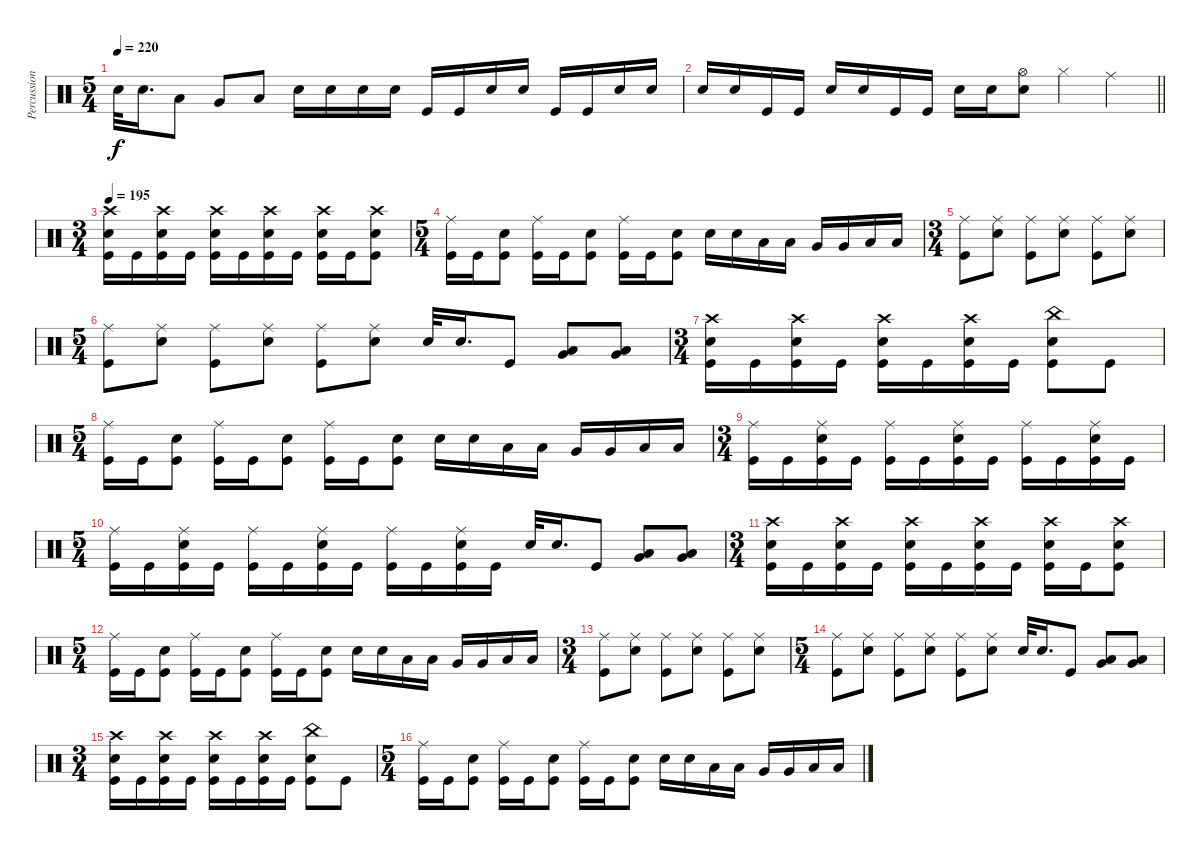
\track ("Percussion" "Percussion") {instrument percussion}
\staff {score}
\articulation defaults
\ts (5 4)
\tempo 220
\clef neutral
\ks c "Electric Snare (hit)".32{dy f} "Electric Snare (hit)".16{d} "Low Tom (hit)".8 "Very Low Tom (hit)".8 "Low Floor Tom (hit)".8 "Electric Snare (hit)".16 "Electric Snare (hit)".16 "Electric Snare (hit)".16 "Electric Snare (hit)".16 "Kick (hit)".16 "Kick (hit)".16 "Electric Snare (hit)".16 "Electric Snare (hit)".16 "Kick (hit)".16 "Kick (hit)".16 "Electric Snare (hit)".16 "Electric Snare (hit)".16
|
\barLineRight lightlight "Electric Snare (hit)".16 "Electric Snare (hit)".16 "Kick (hit)".16 "Kick (hit)".16 "Electric Snare (hit)".16 "Electric Snare (hit)".16 "Kick (hit)".16 "Kick (hit)".16 "Electric Snare (hit)".16 "Electric Snare (hit)".16
("Hi-Hat (open)" "Electric Snare (hit)").8 "Hi-Hat (closed)".4 "Ride (middle)".4 |
\ts (3 4)
\tempo 195
("Crash high (hit)" "Electric Snare (hit)" "Kick (hit)").16 "Kick (hit)".16 ("Crash high (hit)" "Electric Snare (hit)" "Kick (hit)").16 "Kick (hit)".16 ("Crash high (hit)" "Electric Snare (hit)" "Kick (hit)").16 "Kick (hit)".16 ("Crash high (hit)" "Electric Snare (hit)" "Kick (hit)").16 "Kick (hit)".16 ("Crash high (hit)" "Electric Snare (hit)" "Kick (hit)").16 "Kick (hit)".16 ("Crash high (hit)" "Electric Snare (hit)" "Kick (hit)").8 |
\ts (5 4)
("Ride (middle)" "Kick (hit)").16 "Kick (hit)".16 ("Electric Snare (hit)" "Kick (hit)").8 ("Ride (middle)" "Kick (hit)").16 "Kick (hit)".16 ("Electric Snare (hit)" "Kick (hit)").8 ("Ride (middle)" "Kick (hit)").16 "Kick (hit)".16 ("Electric Snare (hit)" "Kick (hit)").8 "Electric Snare (hit)".16 "Electric Snare (hit)".16 "Low Tom (hit)".16 "Low Tom (hit)".16 "Very Low Tom (hit)".16 "Very Low Tom (hit)".16 "Low Floor Tom (hit)".16 "Low Floor Tom (hit)".16 |
\ts (3 4)
("Ride (middle)" "Kick (hit)").8 ("Ride (middle)" "Electric Snare (hit)").8 ("Ride (middle)" "Kick (hit)").8 ("Ride (middle)" "Electric Snare (hit)").8 ("Ride (middle)" "Kick (hit)").8 ("Ride (middle)" "Electric Snare (hit)").8 |
\ts (5 4)
("Ride (middle)" "Kick (hit)").8 ("Ride (middle)" "Electric Snare (hit)").8 ("Ride (middle)" "Kick (hit)").8 ("Ride (middle)" "Electric Snare (hit)").8 ("Ride (middle)" "Kick (hit)").8 ("Ride (middle)" "Electric Snare (hit)").8 "Electric Snare (hit)".32 "Electric Snare (hit)".16{d} "Kick (hit)".8 ("Very Low Tom (hit)" "Low Floor Tom (hit)").8 ("Very Low Tom (hit)" "Low Floor Tom (hit)").8 |
\ts (3 4)
("Crash high (hit)" "Electric Snare (hit)" "Kick (hit)").16 "Kick (hit)".16 ("Crash high (hit)" "Electric Snare (hit)" "Kick (hit)").16 "Kick (hit)".16 ("Crash high (hit)" "Electric Snare (hit)" "Kick (hit)").16 "Kick (hit)".16 ("Crash high (hit)" "Electric Snare (hit)" "Kick (hit)").16 "Kick (hit)".16 ("China (hit)" "Electric Snare (hit)" "Kick (hit)").8 "Kick (hit)".8 |
\ts (5 4)
("Ride (middle)" "Kick (hit)").16 "Kick (hit)".16 ("Electric Snare (hit)" "Kick (hit)").8 ("Ride (middle)" "Kick (hit)").16 "Kick (hit)".16 ("Electric Snare (hit)" "Kick (hit)").8 ("Ride (middle)" "Kick (hit)").16 "Kick (hit)".16 ("Electric Snare (hit)" "Kick (hit)").8 "Electric Snare (hit)".16 "Electric Snare (hit)".16 "Low Tom (hit)".16 "Low Tom (hit)".16 "Very Low Tom (hit)".16 "Very Low Tom (hit)".16 "Low Floor Tom (hit)".16 "Low Floor Tom (hit)".16 |
\ts (3 4)
("Ride (middle)" "Kick (hit)").16 "Kick (hit)".16 ("Ride (middle)" "Electric Snare (hit)" "Kick (hit)").16 "Kick (hit)".16 ("Ride (middle)" "Kick (hit)").16 "Kick (hit)".16 ("Ride (middle)" "Electric Snare (hit)" "Kick (hit)").16 "Kick (hit)".16 ("Ride (middle)" "Kick (hit)").16 "Kick (hit)".16 ("Ride (middle)" "Electric Snare (hit)" "Kick (hit)").16 "Kick (hit)".16 |
\ts (5 4)
("Ride (middle)" "Kick (hit)").16 "Kick (hit)".16 ("Ride (middle)" "Electric Snare (hit)" "Kick (hit)").16 "Kick (hit)".16 ("Ride (middle)" "Kick (hit)").16 "Kick (hit)".16 ("Ride (middle)" "Electric Snare (hit)" "Kick (hit)").16 "Kick (hit)".16 ("Ride (middle)" "Kick (hit)").16 "Kick (hit)".16 ("Ride (middle)" "Electric Snare (hit)" "Kick (hit)").16 "Kick (hit)".16 "Electric Snare (hit)".32 "Electric Snare (hit)".16{d} "Kick (hit)".8 ("Very Low Tom (hit)" "Low Floor Tom (hit)").8 ("Very Low Tom (hit)" "Low Floor Tom (hit)").8 |
\ts (3 4)
("Crash high (hit)" "Electric Snare (hit)" "Kick (hit)").16 "Kick (hit)".16 ("Crash high (hit)" "Electric Snare (hit)" "Kick (hit)").16 "Kick (hit)".16 ("Crash high (hit)" "Electric Snare (hit)" "Kick (hit)").16 "Kick (hit)".16 ("Crash high (hit)" "Electric Snare (hit)" "Kick (hit)").16 "Kick (hit)".16 ("Crash high (hit)" "Electric Snare (hit)" "Kick (hit)").16 "Kick (hit)".16 ("Crash high (hit)" "Electric Snare (hit)" "Kick (hit)").8 |
\ts (5 4)
("Ride (middle)" "Kick (hit)").16 "Kick (hit)".16 ("Electric Snare (hit)" "Kick (hit)").8 ("Ride (middle)" "Kick (hit)").16 "Kick (hit)".16 ("Electric Snare (hit)" "Kick (hit)").8 ("Ride (middle)" "Kick (hit)").16 "Kick (hit)".16 ("Electric Snare (hit)" "Kick (hit)").8 "Electric Snare (hit)".16 "Electric Snare (hit)".16 "Low Tom (hit)".16 "Low Tom (hit)".16 "Very Low Tom (hit)".16 "Very Low Tom (hit)".16 "Low Floor Tom (hit)".16 "Low Floor Tom (hit)".16 |
\ts (3 4)
("Ride (middle)" "Kick (hit)").8 ("Ride (middle)" "Electric Snare (hit)").8 ("Ride (middle)" "Kick (hit)").8 ("Ride (middle)" "Electric Snare (hit)").8 ("Ride (middle)" "Kick (hit)").8 ("Ride (middle)" "Electric Snare (hit)").8 |
\ts (5 4)
("Ride (middle)" "Kick (hit)").8 ("Ride (middle)" "Electric Snare (hit)").8 ("Ride (middle)" "Kick (hit)").8 ("Ride (middle)" "Electric Snare (hit)").8 ("Ride (middle)" "Kick (hit)").8 ("Ride (middle)" "Electric Snare (hit)").8 "Electric Snare (hit)".32 "Electric Snare (hit)".16{d} "Kick (hit)".8 ("Very Low Tom (hit)" "Low Floor Tom (hit)").8 ("Very Low Tom (hit)" "Low Floor Tom (hit)").8 |
\ts (3 4)
("Crash high (hit)" "Electric Snare (hit)" "Kick (hit)").16 "Kick (hit)".16 ("Crash high (hit)" "Electric Snare (hit)" "Kick (hit)").16 "Kick (hit)".16 ("Crash high (hit)" "Electric Snare (hit)" "Kick (hit)").16 "Kick (hit)".16 ("Crash high (hit)" "Electric Snare (hit)" "Kick (hit)").16 "Kick (hit)".16 ("China (hit)" "Electric Snare (hit)" "Kick (hit)").8 "Kick (hit)".8 |
\ts (5 4)
("Ride (middle)" "Kick (hit)").16 "Kick (hit)".16 ("Electric Snare (hit)" "Kick (hit)").8 ("Ride (middle)" "Kick (hit)").16 "Kick (hit)".16 ("Electric Snare (hit)" "Kick (hit)").8 ("Ride (middle)" "Kick (hit)").16 "Kick (hit)".16 ("Electric Snare (hit)" "Kick (hit)").8 "Electric Snare (hit)".16 "Electric Snare (hit)".16 "Low Tom (hit)".16 "Low Tom (hit)".16 "Very Low Tom (hit)".16 "Very Low Tom (hit)".16 "Low Floor Tom (hit)".16 "Low Floor Tom (hit)".16
